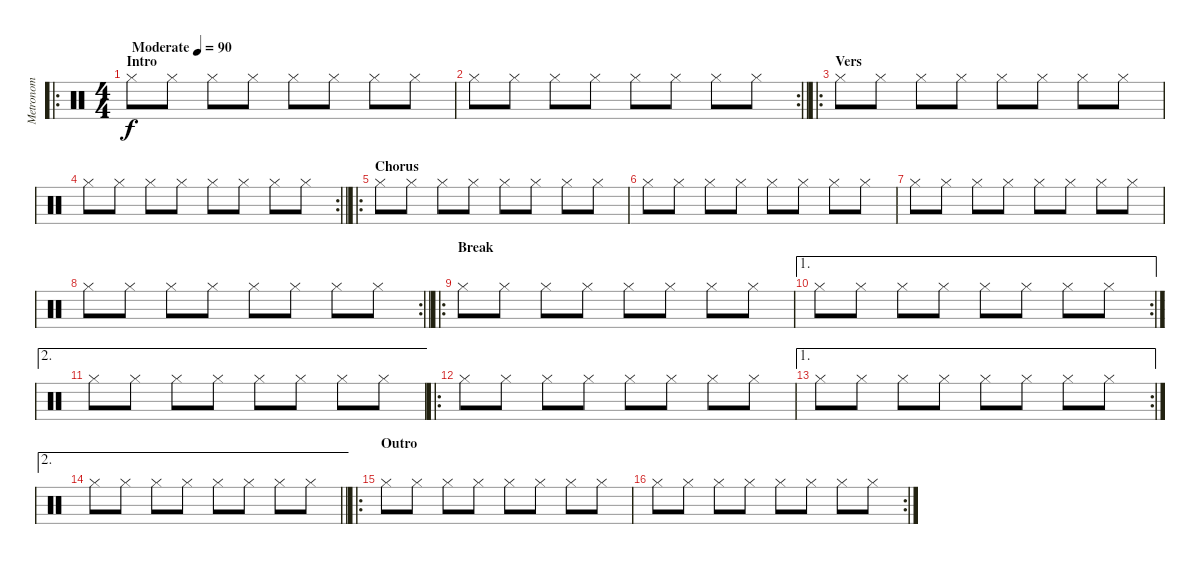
\track ("Metronom" "Metronom") {instrument percussion}
\staff {score}
\articulation defaults
\ro
\ts (4 4)
\section ("" "Intro")
\tempo (90 "Moderate")
\clef neutral
\ks c "Hi-Hat (closed)".8{dy f} "Hi-Hat (closed)".8 "Hi-Hat (closed)".8 "Hi-Hat (closed)".8 "Hi-Hat (closed)".8 "Hi-Hat (closed)".8 "Hi-Hat (closed)".8 "Hi-Hat (closed)".8
|
\rc 2
\barLineRight lightlight "Hi-Hat (closed)".8 "Hi-Hat (closed)".8 "Hi-Hat (closed)".8 "Hi-Hat (closed)".8 "Hi-Hat (closed)".8 "Hi-Hat (closed)".8 "Hi-Hat (closed)".8 "Hi-Hat (closed)".8
|
\ro
\section ("" "Vers")
"Hi-Hat (closed)".8 "Hi-Hat (closed)".8 "Hi-Hat (closed)".8 "Hi-Hat (closed)".8 "Hi-Hat (closed)".8 "Hi-Hat (closed)".8 "Hi-Hat (closed)".8 "Hi-Hat (closed)".8 |
\rc 2
\barLineRight lightlight "Hi-Hat (closed)".8 "Hi-Hat (closed)".8 "Hi-Hat (closed)".8 "Hi-Hat (closed)".8 "Hi-Hat (closed)".8 "Hi-Hat (closed)".8 "Hi-Hat (closed)".8 "Hi-Hat (closed)".8
|
\ro
\section ("" "Chorus")
"Hi-Hat (closed)".8 "Hi-Hat (closed)".8 "Hi-Hat (closed)".8 "Hi-Hat (closed)".8 "Hi-Hat (closed)".8 "Hi-Hat (closed)".8 "Hi-Hat (closed)".8 "Hi-Hat (closed)".8 |
"Hi-Hat (closed)".8 "Hi-Hat (closed)".8 "Hi-Hat (closed)".8 "Hi-Hat (closed)".8 "Hi-Hat (closed)".8 "Hi-Hat (closed)".8 "Hi-Hat (closed)".8 "Hi-Hat (closed)".8 |
"Hi-Hat (closed)".8 "Hi-Hat (closed)".8 "Hi-Hat (closed)".8 "Hi-Hat (closed)".8 "Hi-Hat (closed)".8 "Hi-Hat (closed)".8 "Hi-Hat (closed)".8 "Hi-Hat (closed)".8 |
\rc 2
\barLineRight lightlight "Hi-Hat (closed)".8 "Hi-Hat (closed)".8 "Hi-Hat (closed)".8 "Hi-Hat (closed)".8 "Hi-Hat (closed)".8 "Hi-Hat (closed)".8 "Hi-Hat (closed)".8 "Hi-Hat (closed)".8
|
\ro
\section ("" "Break")
"Hi-Hat (closed)".8 "Hi-Hat (closed)".8 "Hi-Hat (closed)".8 "Hi-Hat (closed)".8 "Hi-Hat (closed)".8 "Hi-Hat (closed)".8 "Hi-Hat (closed)".8 "Hi-Hat (closed)".8 |
\ae 1
\rc 2 "Hi-Hat (closed)".8 "Hi-Hat (closed)".8 "Hi-Hat (closed)".8 "Hi-Hat (closed)".8 "Hi-Hat (closed)".8 "Hi-Hat (closed)".8 "Hi-Hat (closed)".8 "Hi-Hat (closed)".8
|
\ae 2 "Hi-Hat (closed)".8 "Hi-Hat (closed)".8 "Hi-Hat (closed)".8 "Hi-Hat (closed)".8 "Hi-Hat (closed)".8 "Hi-Hat (closed)".8 "Hi-Hat (closed)".8 "Hi-Hat (closed)".8
|
\ro "Hi-Hat (closed)".8 "Hi-Hat (closed)".8 "Hi-Hat (closed)".8 "Hi-Hat (closed)".8 "Hi-Hat (closed)".8 "Hi-Hat (closed)".8 "Hi-Hat (closed)".8 "Hi-Hat (closed)".8
|
\ae 1
\rc 2 "Hi-Hat (closed)".8 "Hi-Hat (closed)".8 "Hi-Hat (closed)".8 "Hi-Hat (closed)".8 "Hi-Hat (closed)".8 "Hi-Hat (closed)".8 "Hi-Hat (closed)".8 "Hi-Hat (closed)".8
|
\ae 2
\barLineRight lightlight "Hi-Hat (closed)".8 "Hi-Hat (closed)".8 "Hi-Hat (closed)".8 "Hi-Hat (closed)".8 "Hi-Hat (closed)".8 "Hi-Hat (closed)".8 "Hi-Hat (closed)".8 "Hi-Hat (closed)".8
|
\ro
\section ("" "Outro")
"Hi-Hat (closed)".8 "Hi-Hat (closed)".8 "Hi-Hat (closed)".8 "Hi-Hat (closed)".8 "Hi-Hat (closed)".8 "Hi-Hat (closed)".8 "Hi-Hat (closed)".8 "Hi-Hat (closed)".8 |
\rc 2 "Hi-Hat (closed)".8 "Hi-Hat (closed)".8 "Hi-Hat (closed)".8 "Hi-Hat (closed)".8 "Hi-Hat (closed)".8 "Hi-Hat (closed)".8 "Hi-Hat (closed)".8 "Hi-Hat (closed)".8
